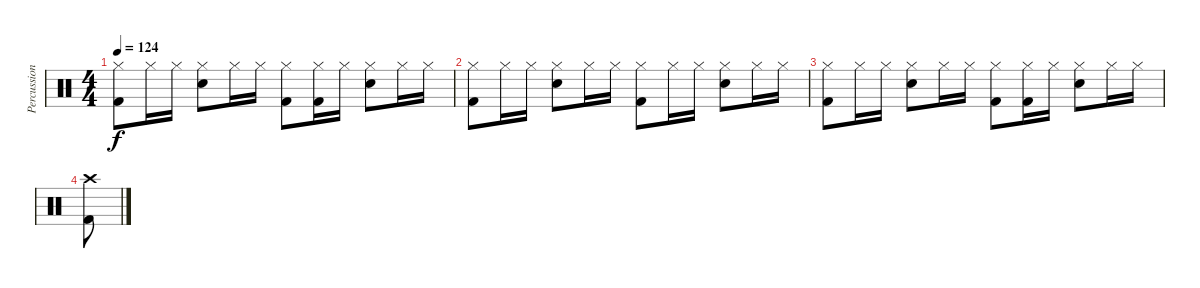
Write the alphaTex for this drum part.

\track ("Percussion" "Percussion") {instrument percussion}
\staff {score}
\articulation defaults
\ts (4 4)
\tempo 124
\clef neutral
\ks c
("Hi-Hat (closed)" "Kick (hit) 2").8{dy f} "Hi-Hat (closed)".16 "Hi-Hat (closed)".16 ("Hi-Hat (closed)" "Snare (hit) 2").8 "Hi-Hat (closed)".16 "Hi-Hat (closed)".16 ("Hi-Hat (closed)" "Kick (hit) 2").8 ("Hi-Hat (closed)" "Kick (hit) 2").16 "Hi-Hat (closed)".16 ("Hi-Hat (closed)" "Snare (hit) 2").8 "Hi-Hat (closed)".16 "Hi-Hat (closed)".16 |
("Hi-Hat (closed)" "Kick (hit) 2").8 "Hi-Hat (closed)".16 "Hi-Hat (closed)".16 ("Hi-Hat (closed)" "Snare (hit) 2").8 "Hi-Hat (closed)".16 "Hi-Hat (closed)".16 ("Hi-Hat (closed)" "Kick (hit) 2").8 "Hi-Hat (closed)".16 "Hi-Hat (closed)".16 ("Hi-Hat (closed)" "Snare (hit) 2").8 "Hi-Hat (closed)".16 "Hi-Hat (closed)".16 |
("Hi-Hat (closed)" "Kick (hit) 2").8 "Hi-Hat (closed)".16 "Hi-Hat (closed)".16 ("Hi-Hat (closed)" "Snare (hit) 2").8 "Hi-Hat (closed)".16 "Hi-Hat (closed)".16 ("Hi-Hat (closed)" "Kick (hit) 2").8 ("Hi-Hat (closed)" "Kick (hit) 2").16 "Hi-Hat (closed)".16 ("Hi-Hat (closed)" "Snare (hit) 2").8 "Hi-Hat (closed)".16 "Hi-Hat (closed)".16 |
("Crash high (hit)" "Kick (hit) 2").8
